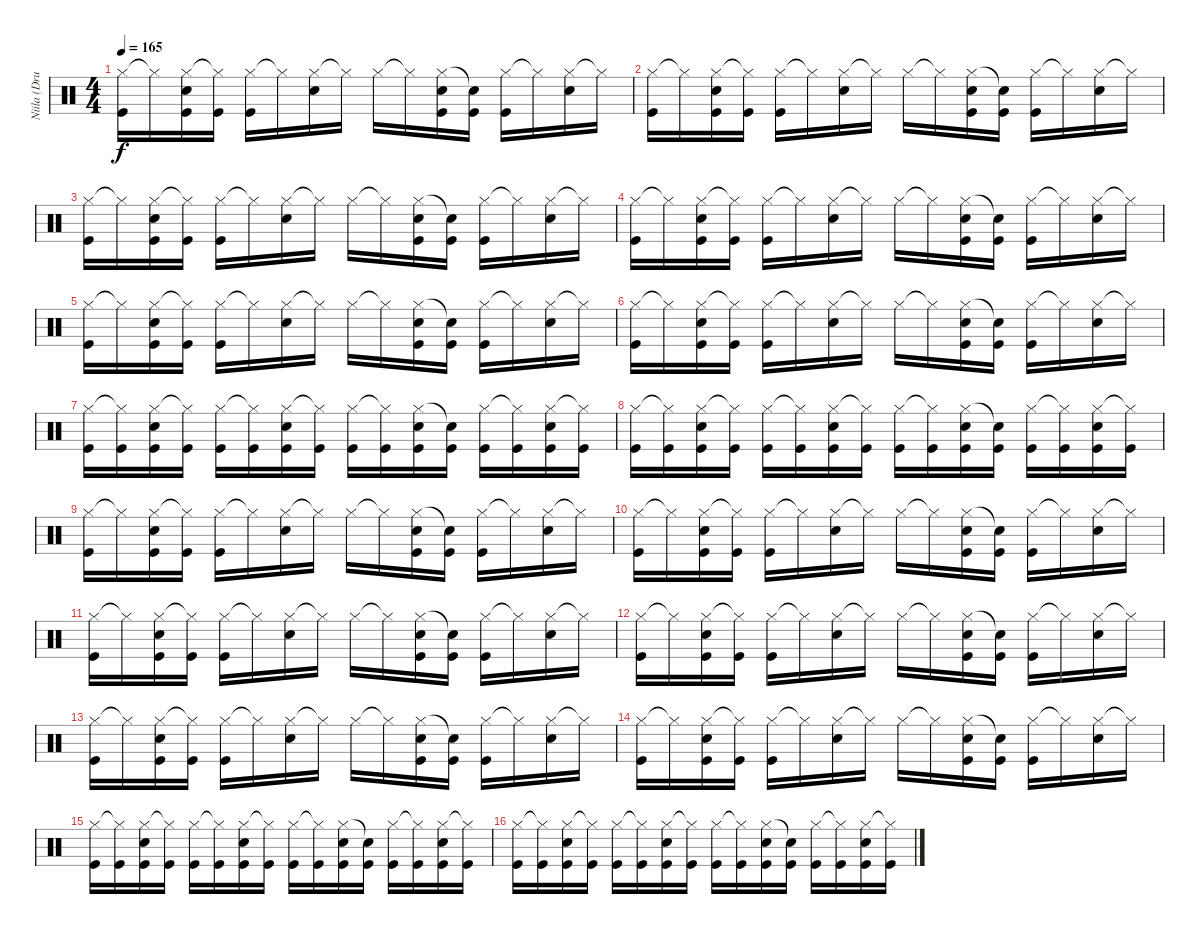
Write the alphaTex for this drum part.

\track ("Niila (Drums)" "Niila (Dru") {instrument percussion}
\staff {score}
\articulation defaults
\ts (4 4)
\tempo 165
\clef neutral
\ks c
("Hi-Hat (closed)" "Kick (hit)").16{dy f} "Hi-Hat (closed)"{t}.16 ("Hi-Hat (closed)" "Snare (hit) 2" "Kick (hit)").16 ("Hi-Hat (closed)"{t} "Kick (hit)").16 ("Hi-Hat (closed)" "Kick (hit)").16 "Hi-Hat (closed)"{t}.16 ("Hi-Hat (closed)" "Snare (hit) 2").16 "Hi-Hat (closed)"{t}.16 "Hi-Hat (closed)".16 "Hi-Hat (closed)"{t}.16 ("Hi-Hat (closed)" "Snare (hit) 2" "Kick (hit)").16 ("Snare (hit)"{t} "Kick (hit)").16 ("Hi-Hat (closed)" "Kick (hit)").16 "Hi-Hat (closed)"{t}.16 ("Hi-Hat (closed)" "Snare (hit) 2").16 "Hi-Hat (closed)"{t}.16 |
("Hi-Hat (closed)" "Kick (hit)").16 "Hi-Hat (closed)"{t}.16 ("Hi-Hat (closed)" "Snare (hit) 2" "Kick (hit)").16 ("Hi-Hat (closed)"{t} "Kick (hit)").16 ("Hi-Hat (closed)" "Kick (hit)").16 "Hi-Hat (closed)"{t}.16 ("Hi-Hat (closed)" "Snare (hit) 2").16 "Hi-Hat (closed)"{t}.16 "Hi-Hat (closed)".16 "Hi-Hat (closed)"{t}.16 ("Hi-Hat (closed)" "Snare (hit) 2" "Kick (hit)").16 ("Snare (hit)"{t} "Kick (hit)").16 ("Hi-Hat (closed)" "Kick (hit)").16 "Hi-Hat (closed)"{t}.16 ("Hi-Hat (closed)" "Snare (hit) 2").16 "Hi-Hat (closed)"{t}.16 |
("Hi-Hat (closed)" "Kick (hit)").16 "Hi-Hat (closed)"{t}.16 ("Hi-Hat (closed)" "Snare (hit) 2" "Kick (hit)").16 ("Hi-Hat (closed)"{t} "Kick (hit)").16 ("Hi-Hat (closed)" "Kick (hit)").16 "Hi-Hat (closed)"{t}.16 ("Hi-Hat (closed)" "Snare (hit) 2").16 "Hi-Hat (closed)"{t}.16 "Hi-Hat (closed)".16 "Hi-Hat (closed)"{t}.16 ("Hi-Hat (closed)" "Snare (hit) 2" "Kick (hit)").16 ("Snare (hit)"{t} "Kick (hit)").16 ("Hi-Hat (closed)" "Kick (hit)").16 "Hi-Hat (closed)"{t}.16 ("Hi-Hat (closed)" "Snare (hit) 2").16 "Hi-Hat (closed)"{t}.16 |
("Hi-Hat (closed)" "Kick (hit)").16 "Hi-Hat (closed)"{t}.16 ("Hi-Hat (closed)" "Snare (hit) 2" "Kick (hit)").16 ("Hi-Hat (closed)"{t} "Kick (hit)").16 ("Hi-Hat (closed)" "Kick (hit)").16 "Hi-Hat (closed)"{t}.16 ("Hi-Hat (closed)" "Snare (hit) 2").16 "Hi-Hat (closed)"{t}.16 "Hi-Hat (closed)".16 "Hi-Hat (closed)"{t}.16 ("Hi-Hat (closed)" "Snare (hit) 2" "Kick (hit)").16 ("Snare (hit)"{t} "Kick (hit)").16 ("Hi-Hat (closed)" "Kick (hit)").16 "Hi-Hat (closed)"{t}.16 ("Hi-Hat (closed)" "Snare (hit) 2").16 "Hi-Hat (closed)"{t}.16 |
("Hi-Hat (closed)" "Kick (hit)").16 "Hi-Hat (closed)"{t}.16 ("Hi-Hat (closed)" "Snare (hit) 2" "Kick (hit)").16 ("Hi-Hat (closed)"{t} "Kick (hit)").16 ("Hi-Hat (closed)" "Kick (hit)").16 "Hi-Hat (closed)"{t}.16 ("Hi-Hat (closed)" "Snare (hit) 2").16 "Hi-Hat (closed)"{t}.16 "Hi-Hat (closed)".16 "Hi-Hat (closed)"{t}.16 ("Hi-Hat (closed)" "Snare (hit) 2" "Kick (hit)").16 ("Snare (hit)"{t} "Kick (hit)").16 ("Hi-Hat (closed)" "Kick (hit)").16 "Hi-Hat (closed)"{t}.16 ("Hi-Hat (closed)" "Snare (hit) 2").16 "Hi-Hat (closed)"{t}.16 |
("Hi-Hat (closed)" "Kick (hit)").16 "Hi-Hat (closed)"{t}.16 ("Hi-Hat (closed)" "Snare (hit) 2" "Kick (hit)").16 ("Hi-Hat (closed)"{t} "Kick (hit)").16 ("Hi-Hat (closed)" "Kick (hit)").16 "Hi-Hat (closed)"{t}.16 ("Hi-Hat (closed)" "Snare (hit) 2").16 "Hi-Hat (closed)"{t}.16 "Hi-Hat (closed)".16 "Hi-Hat (closed)"{t}.16 ("Hi-Hat (closed)" "Snare (hit) 2" "Kick (hit)").16 ("Snare (hit)"{t} "Kick (hit)").16 ("Hi-Hat (closed)" "Kick (hit)").16 "Hi-Hat (closed)"{t}.16 ("Hi-Hat (closed)" "Snare (hit) 2").16 "Hi-Hat (closed)"{t}.16 |
("Hi-Hat (closed)" "Kick (hit)").16 ("Hi-Hat (closed)"{t} "Kick (hit)").16 ("Hi-Hat (closed)" "Snare (hit) 2" "Kick (hit)").16 ("Hi-Hat (closed)"{t} "Kick (hit)").16 ("Hi-Hat (closed)" "Kick (hit)").16 ("Hi-Hat (closed)"{t} "Kick (hit)").16 ("Hi-Hat (closed)" "Snare (hit) 2" "Kick (hit)").16 ("Hi-Hat (closed)"{t} "Kick (hit)").16 ("Hi-Hat (closed)" "Kick (hit)").16 ("Hi-Hat (closed)"{t} "Kick (hit)").16 ("Hi-Hat (closed)" "Snare (hit) 2" "Kick (hit)").16 ("Snare (hit)"{t} "Kick (hit)").16 ("Hi-Hat (closed)" "Kick (hit)").16 ("Hi-Hat (closed)"{t} "Kick (hit)").16 ("Hi-Hat (closed)" "Snare (hit) 2" "Kick (hit)").16 ("Hi-Hat (closed)"{t} "Kick (hit)").16 |
("Hi-Hat (closed)" "Kick (hit)").16 ("Hi-Hat (closed)"{t} "Kick (hit)").16 ("Hi-Hat (closed)" "Snare (hit) 2" "Kick (hit)").16 ("Hi-Hat (closed)"{t} "Kick (hit)").16 ("Hi-Hat (closed)" "Kick (hit)").16 ("Hi-Hat (closed)"{t} "Kick (hit)").16 ("Hi-Hat (closed)" "Snare (hit) 2" "Kick (hit)").16 ("Hi-Hat (closed)"{t} "Kick (hit)").16 ("Hi-Hat (closed)" "Kick (hit)").16 ("Hi-Hat (closed)"{t} "Kick (hit)").16 ("Hi-Hat (closed)" "Snare (hit) 2" "Kick (hit)").16 ("Snare (hit)"{t} "Kick (hit)").16 ("Hi-Hat (closed)" "Kick (hit)").16 ("Hi-Hat (closed)"{t} "Kick (hit)").16 ("Hi-Hat (closed)" "Snare (hit) 2" "Kick (hit)").16 ("Hi-Hat (closed)"{t} "Kick (hit)").16 |
("Hi-Hat (closed)" "Kick (hit)").16 "Hi-Hat (closed)"{t}.16 ("Hi-Hat (closed)" "Snare (hit) 2" "Kick (hit)").16 ("Hi-Hat (closed)"{t} "Kick (hit)").16 ("Hi-Hat (closed)" "Kick (hit)").16 "Hi-Hat (closed)"{t}.16 ("Hi-Hat (closed)" "Snare (hit) 2").16 "Hi-Hat (closed)"{t}.16 "Hi-Hat (closed)".16 "Hi-Hat (closed)"{t}.16 ("Hi-Hat (closed)" "Snare (hit) 2" "Kick (hit)").16 ("Snare (hit)"{t} "Kick (hit)").16 ("Hi-Hat (closed)" "Kick (hit)").16 "Hi-Hat (closed)"{t}.16 ("Hi-Hat (closed)" "Snare (hit) 2").16 "Hi-Hat (closed)"{t}.16 |
("Hi-Hat (closed)" "Kick (hit)").16 "Hi-Hat (closed)"{t}.16 ("Hi-Hat (closed)" "Snare (hit) 2" "Kick (hit)").16 ("Hi-Hat (closed)"{t} "Kick (hit)").16 ("Hi-Hat (closed)" "Kick (hit)").16 "Hi-Hat (closed)"{t}.16 ("Hi-Hat (closed)" "Snare (hit) 2").16 "Hi-Hat (closed)"{t}.16 "Hi-Hat (closed)".16 "Hi-Hat (closed)"{t}.16 ("Hi-Hat (closed)" "Snare (hit) 2" "Kick (hit)").16 ("Snare (hit)"{t} "Kick (hit)").16 ("Hi-Hat (closed)" "Kick (hit)").16 "Hi-Hat (closed)"{t}.16 ("Hi-Hat (closed)" "Snare (hit) 2").16 "Hi-Hat (closed)"{t}.16 |
("Hi-Hat (closed)" "Kick (hit)").16 "Hi-Hat (closed)"{t}.16 ("Hi-Hat (closed)" "Snare (hit) 2" "Kick (hit)").16 ("Hi-Hat (closed)"{t} "Kick (hit)").16 ("Hi-Hat (closed)" "Kick (hit)").16 "Hi-Hat (closed)"{t}.16 ("Hi-Hat (closed)" "Snare (hit) 2").16 "Hi-Hat (closed)"{t}.16 "Hi-Hat (closed)".16 "Hi-Hat (closed)"{t}.16 ("Hi-Hat (closed)" "Snare (hit) 2" "Kick (hit)").16 ("Snare (hit)"{t} "Kick (hit)").16 ("Hi-Hat (closed)" "Kick (hit)").16 "Hi-Hat (closed)"{t}.16 ("Hi-Hat (closed)" "Snare (hit) 2").16 "Hi-Hat (closed)"{t}.16 |
("Hi-Hat (closed)" "Kick (hit)").16 "Hi-Hat (closed)"{t}.16 ("Hi-Hat (closed)" "Snare (hit) 2" "Kick (hit)").16 ("Hi-Hat (closed)"{t} "Kick (hit)").16 ("Hi-Hat (closed)" "Kick (hit)").16 "Hi-Hat (closed)"{t}.16 ("Hi-Hat (closed)" "Snare (hit) 2").16 "Hi-Hat (closed)"{t}.16 "Hi-Hat (closed)".16 "Hi-Hat (closed)"{t}.16 ("Hi-Hat (closed)" "Snare (hit) 2" "Kick (hit)").16 ("Snare (hit)"{t} "Kick (hit)").16 ("Hi-Hat (closed)" "Kick (hit)").16 "Hi-Hat (closed)"{t}.16 ("Hi-Hat (closed)" "Snare (hit) 2").16 "Hi-Hat (closed)"{t}.16 |
("Hi-Hat (closed)" "Kick (hit)").16 "Hi-Hat (closed)"{t}.16 ("Hi-Hat (closed)" "Snare (hit) 2" "Kick (hit)").16 ("Hi-Hat (closed)"{t} "Kick (hit)").16 ("Hi-Hat (closed)" "Kick (hit)").16 "Hi-Hat (closed)"{t}.16 ("Hi-Hat (closed)" "Snare (hit) 2").16 "Hi-Hat (closed)"{t}.16 "Hi-Hat (closed)".16 "Hi-Hat (closed)"{t}.16 ("Hi-Hat (closed)" "Snare (hit) 2" "Kick (hit)").16 ("Snare (hit)"{t} "Kick (hit)").16 ("Hi-Hat (closed)" "Kick (hit)").16 "Hi-Hat (closed)"{t}.16 ("Hi-Hat (closed)" "Snare (hit) 2").16 "Hi-Hat (closed)"{t}.16 |
("Hi-Hat (closed)" "Kick (hit)").16 "Hi-Hat (closed)"{t}.16 ("Hi-Hat (closed)" "Snare (hit) 2" "Kick (hit)").16 ("Hi-Hat (closed)"{t} "Kick (hit)").16 ("Hi-Hat (closed)" "Kick (hit)").16 "Hi-Hat (closed)"{t}.16 ("Hi-Hat (closed)" "Snare (hit) 2").16 "Hi-Hat (closed)"{t}.16 "Hi-Hat (closed)".16 "Hi-Hat (closed)"{t}.16 ("Hi-Hat (closed)" "Snare (hit) 2" "Kick (hit)").16 ("Snare (hit)"{t} "Kick (hit)").16 ("Hi-Hat (closed)" "Kick (hit)").16 "Hi-Hat (closed)"{t}.16 ("Hi-Hat (closed)" "Snare (hit) 2").16 "Hi-Hat (closed)"{t}.16 |
("Hi-Hat (closed)" "Kick (hit)").16 ("Hi-Hat (closed)"{t} "Kick (hit)").16 ("Hi-Hat (closed)" "Snare (hit) 2" "Kick (hit)").16 ("Hi-Hat (closed)"{t} "Kick (hit)").16 ("Hi-Hat (closed)" "Kick (hit)").16 ("Hi-Hat (closed)"{t} "Kick (hit)").16 ("Hi-Hat (closed)" "Snare (hit) 2" "Kick (hit)").16 ("Hi-Hat (closed)"{t} "Kick (hit)").16 ("Hi-Hat (closed)" "Kick (hit)").16 ("Hi-Hat (closed)"{t} "Kick (hit)").16 ("Hi-Hat (closed)" "Snare (hit) 2" "Kick (hit)").16 ("Snare (hit)"{t} "Kick (hit)").16 ("Hi-Hat (closed)" "Kick (hit)").16 ("Hi-Hat (closed)"{t} "Kick (hit)").16 ("Hi-Hat (closed)" "Snare (hit) 2" "Kick (hit)").16 ("Hi-Hat (closed)"{t} "Kick (hit)").16 |
("Hi-Hat (closed)" "Kick (hit)").16 ("Hi-Hat (closed)"{t} "Kick (hit)").16 ("Hi-Hat (closed)" "Snare (hit) 2" "Kick (hit)").16 ("Hi-Hat (closed)"{t} "Kick (hit)").16 ("Hi-Hat (closed)" "Kick (hit)").16 ("Hi-Hat (closed)"{t} "Kick (hit)").16 ("Hi-Hat (closed)" "Snare (hit) 2" "Kick (hit)").16 ("Hi-Hat (closed)"{t} "Kick (hit)").16 ("Hi-Hat (closed)" "Kick (hit)").16 ("Hi-Hat (closed)"{t} "Kick (hit)").16 ("Hi-Hat (closed)" "Snare (hit) 2" "Kick (hit)").16 ("Snare (hit)"{t} "Kick (hit)").16 ("Hi-Hat (closed)" "Kick (hit)").16 ("Hi-Hat (closed)"{t} "Kick (hit)").16 ("Hi-Hat (closed)" "Snare (hit) 2" "Kick (hit)").16 ("Hi-Hat (closed)"{t} "Kick (hit)").16
